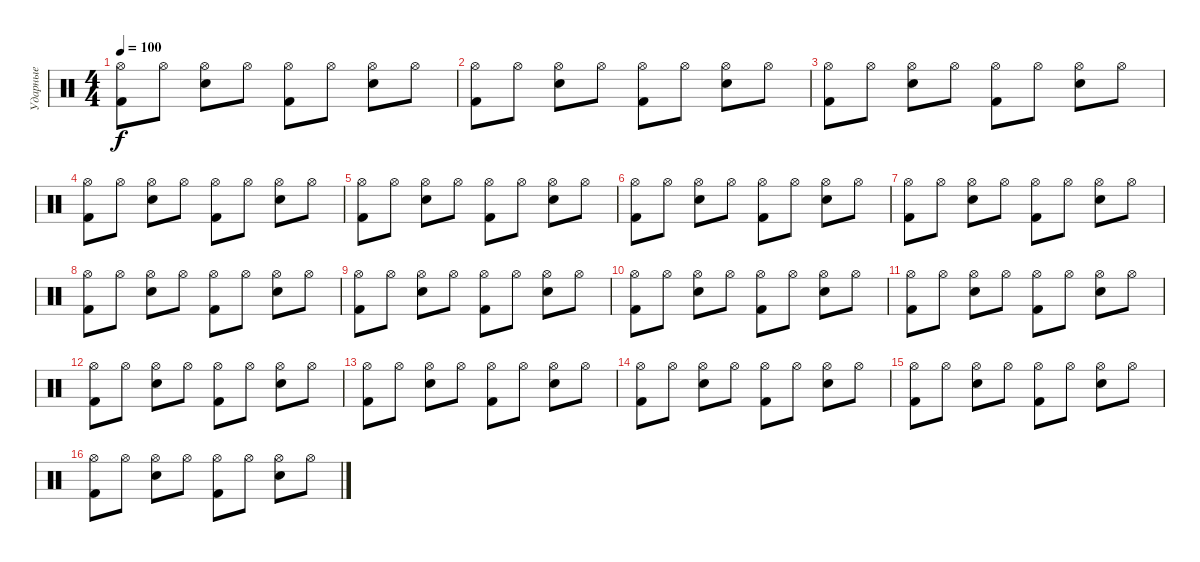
\track ("Ударные" "Ударные") {instrument percussion}
\staff {score}
\articulation defaults
\ts (4 4)
\tempo 100
\clef neutral
\ks c
("Hi-Hat (open)" "Kick (hit) 2").8{dy f} "Hi-Hat (open)".8 ("Hi-Hat (open)" "Electric Snare (hit)").8 "Hi-Hat (open)".8 ("Hi-Hat (open)" "Kick (hit) 2").8 "Hi-Hat (open)".8 ("Hi-Hat (open)" "Electric Snare (hit)").8 "Hi-Hat (open)".8 |
("Hi-Hat (open)" "Kick (hit) 2").8 "Hi-Hat (open)".8 ("Hi-Hat (open)" "Electric Snare (hit)").8 "Hi-Hat (open)".8 ("Hi-Hat (open)" "Kick (hit) 2").8 "Hi-Hat (open)".8 ("Hi-Hat (open)" "Electric Snare (hit)").8 "Hi-Hat (open)".8 |
("Hi-Hat (open)" "Kick (hit) 2").8 "Hi-Hat (open)".8 ("Hi-Hat (open)" "Electric Snare (hit)").8 "Hi-Hat (open)".8 ("Hi-Hat (open)" "Kick (hit) 2").8 "Hi-Hat (open)".8 ("Hi-Hat (open)" "Electric Snare (hit)").8 "Hi-Hat (open)".8 |
("Hi-Hat (open)" "Kick (hit) 2").8 "Hi-Hat (open)".8 ("Hi-Hat (open)" "Electric Snare (hit)").8 "Hi-Hat (open)".8 ("Hi-Hat (open)" "Kick (hit) 2").8 "Hi-Hat (open)".8 ("Hi-Hat (open)" "Electric Snare (hit)").8 "Hi-Hat (open)".8 |
("Hi-Hat (open)" "Kick (hit) 2").8 "Hi-Hat (open)".8 ("Hi-Hat (open)" "Electric Snare (hit)").8 "Hi-Hat (open)".8 ("Hi-Hat (open)" "Kick (hit) 2").8 "Hi-Hat (open)".8 ("Hi-Hat (open)" "Electric Snare (hit)").8 "Hi-Hat (open)".8 |
("Hi-Hat (open)" "Kick (hit) 2").8 "Hi-Hat (open)".8 ("Hi-Hat (open)" "Electric Snare (hit)").8 "Hi-Hat (open)".8 ("Hi-Hat (open)" "Kick (hit) 2").8 "Hi-Hat (open)".8 ("Hi-Hat (open)" "Electric Snare (hit)").8 "Hi-Hat (open)".8 |
("Hi-Hat (open)" "Kick (hit) 2").8 "Hi-Hat (open)".8 ("Hi-Hat (open)" "Electric Snare (hit)").8 "Hi-Hat (open)".8 ("Hi-Hat (open)" "Kick (hit) 2").8 "Hi-Hat (open)".8 ("Hi-Hat (open)" "Electric Snare (hit)").8 "Hi-Hat (open)".8 |
("Hi-Hat (open)" "Kick (hit) 2").8 "Hi-Hat (open)".8 ("Hi-Hat (open)" "Electric Snare (hit)").8 "Hi-Hat (open)".8 ("Hi-Hat (open)" "Kick (hit) 2").8 "Hi-Hat (open)".8 ("Hi-Hat (open)" "Electric Snare (hit)").8 "Hi-Hat (open)".8 |
("Hi-Hat (open)" "Kick (hit) 2").8 "Hi-Hat (open)".8 ("Hi-Hat (open)" "Electric Snare (hit)").8 "Hi-Hat (open)".8 ("Hi-Hat (open)" "Kick (hit) 2").8 "Hi-Hat (open)".8 ("Hi-Hat (open)" "Electric Snare (hit)").8 "Hi-Hat (open)".8 |
("Hi-Hat (open)" "Kick (hit) 2").8 "Hi-Hat (open)".8 ("Hi-Hat (open)" "Electric Snare (hit)").8 "Hi-Hat (open)".8 ("Hi-Hat (open)" "Kick (hit) 2").8 "Hi-Hat (open)".8 ("Hi-Hat (open)" "Electric Snare (hit)").8 "Hi-Hat (open)".8 |
("Hi-Hat (open)" "Kick (hit) 2").8 "Hi-Hat (open)".8 ("Hi-Hat (open)" "Electric Snare (hit)").8 "Hi-Hat (open)".8 ("Hi-Hat (open)" "Kick (hit) 2").8 "Hi-Hat (open)".8 ("Hi-Hat (open)" "Electric Snare (hit)").8 "Hi-Hat (open)".8 |
("Hi-Hat (open)" "Kick (hit) 2").8 "Hi-Hat (open)".8 ("Hi-Hat (open)" "Electric Snare (hit)").8 "Hi-Hat (open)".8 ("Hi-Hat (open)" "Kick (hit) 2").8 "Hi-Hat (open)".8 ("Hi-Hat (open)" "Electric Snare (hit)").8 "Hi-Hat (open)".8 |
("Hi-Hat (open)" "Kick (hit) 2").8 "Hi-Hat (open)".8 ("Hi-Hat (open)" "Electric Snare (hit)").8 "Hi-Hat (open)".8 ("Hi-Hat (open)" "Kick (hit) 2").8 "Hi-Hat (open)".8 ("Hi-Hat (open)" "Electric Snare (hit)").8 "Hi-Hat (open)".8 |
("Hi-Hat (open)" "Kick (hit) 2").8 "Hi-Hat (open)".8 ("Hi-Hat (open)" "Electric Snare (hit)").8 "Hi-Hat (open)".8 ("Hi-Hat (open)" "Kick (hit) 2").8 "Hi-Hat (open)".8 ("Hi-Hat (open)" "Electric Snare (hit)").8 "Hi-Hat (open)".8 |
("Hi-Hat (open)" "Kick (hit) 2").8 "Hi-Hat (open)".8 ("Hi-Hat (open)" "Electric Snare (hit)").8 "Hi-Hat (open)".8 ("Hi-Hat (open)" "Kick (hit) 2").8 "Hi-Hat (open)".8 ("Hi-Hat (open)" "Electric Snare (hit)").8 "Hi-Hat (open)".8 |
("Hi-Hat (open)" "Kick (hit) 2").8 "Hi-Hat (open)".8 ("Hi-Hat (open)" "Electric Snare (hit)").8 "Hi-Hat (open)".8 ("Hi-Hat (open)" "Kick (hit) 2").8 "Hi-Hat (open)".8 ("Hi-Hat (open)" "Electric Snare (hit)").8 "Hi-Hat (open)".8
